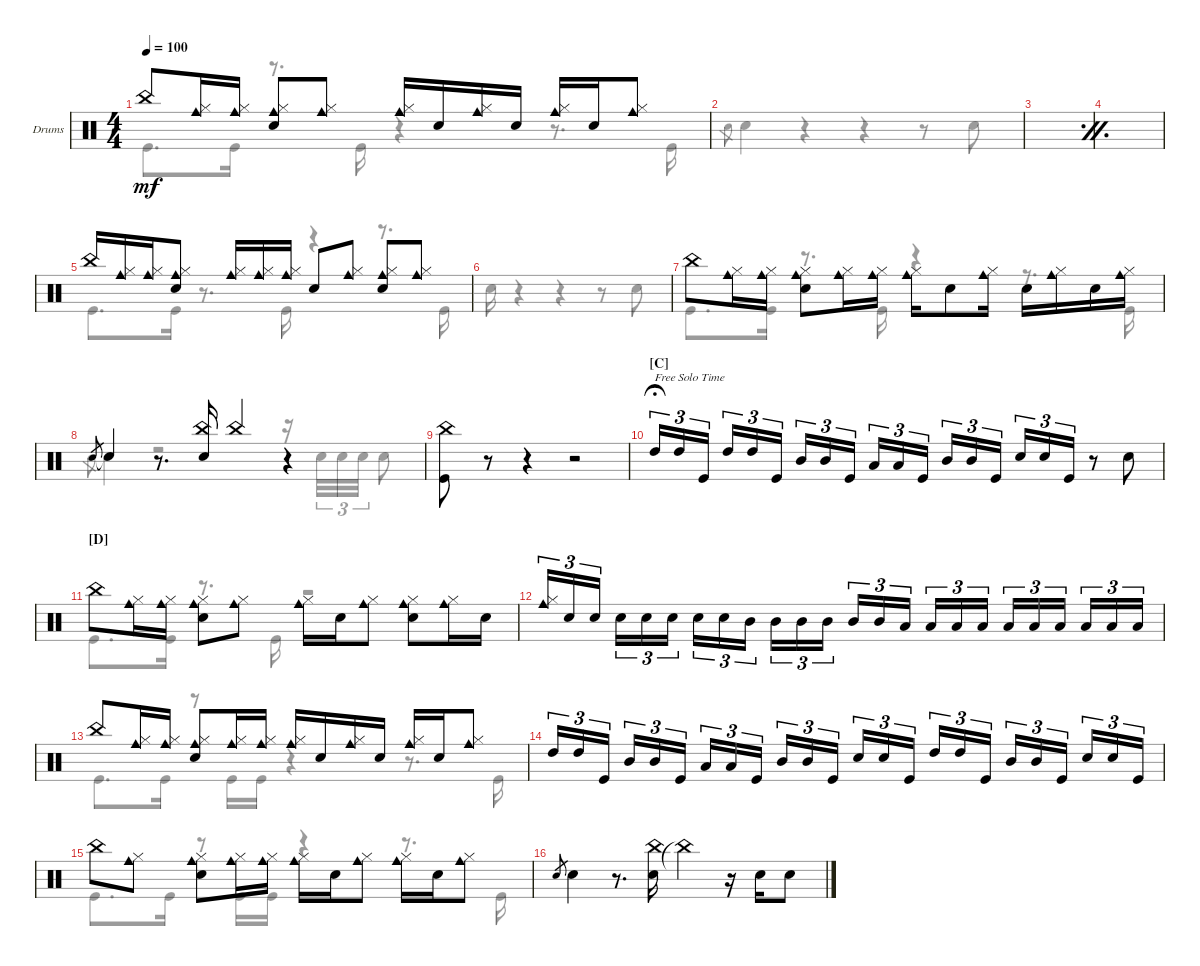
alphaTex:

\defaultSystemsLayout 4
\bracketExtendMode groupsimilarinstruments
\firstSystemTrackNameOrientation horizontal
\otherSystemsTrackNameOrientation horizontal
\track ("John Bonham" "Drums") {instrument percussion}
\staff {score}
\articulation defaults
\voice
\ts (4 4)
\tempo 100
\clef neutral
\ks c "China (hit)".8{dy mf}
("Hi-Hat (closed)" "Cowbell medium (hit)").16 ("Hi-Hat (closed)" "Cowbell medium (hit)").16 ("Hi-Hat (closed)" "Cowbell medium (hit)" "Snare (hit) 2").8 ("Hi-Hat (closed)" "Cowbell medium (hit)").8 ("Hi-Hat (closed)" "Cowbell medium (hit)").16 "Snare (hit) 2".16 ("Hi-Hat (closed)" "Cowbell medium (hit)").16 "Snare (hit) 2".16 ("Hi-Hat (closed)" "Cowbell medium (hit)").16 "Snare (hit) 2".16 ("Hi-Hat (closed)" "Cowbell medium (hit)").8 |
|
\simile firstofdouble
|
\simile secondofdouble
|
\simile none "China (hit)".16
("Hi-Hat (closed)" "Cowbell medium (hit)").16 ("Hi-Hat (closed)" "Cowbell medium (hit)").16 ("Hi-Hat (closed)" "Cowbell medium (hit)" "Snare (hit) 2").8 ("Hi-Hat (closed)" "Cowbell medium (hit)").16 ("Hi-Hat (closed)" "Cowbell medium (hit)").16 ("Hi-Hat (closed)" "Cowbell medium (hit)").16 "Snare (hit) 2".8 ("Hi-Hat (closed)" "Cowbell medium (hit)").8 ("Hi-Hat (closed)" "Cowbell medium (hit)" "Snare (hit) 2").8 ("Hi-Hat (closed)" "Cowbell medium (hit)").8 |
|
"China (hit)".8 ("Hi-Hat (closed)" "Cowbell medium (hit)").16{beam invert} ("Hi-Hat (closed)" "Cowbell medium (hit)").16{beam invert} ("Hi-Hat (closed)" "Cowbell medium (hit)" "Snare (hit) 2").8{beam invert} ("Hi-Hat (closed)" "Cowbell medium (hit)").16{beam invert} ("Hi-Hat (closed)" "Cowbell medium (hit)").16{beam invert} ("Hi-Hat (closed)" "Cowbell medium (hit)").16{beam invert} "Snare (hit) 2".8 ("Hi-Hat (closed)" "Cowbell medium (hit)").16{beam invert} "Snare (hit) 2".16 ("Hi-Hat (closed)" "Cowbell medium (hit)").16{beam invert} "Snare (hit) 2".16 ("Hi-Hat (closed)" "Cowbell medium (hit)").16{beam invert} |
"Snare (hit) 2".8{gr} "Snare (hit) 2"{t}.4 r.8{d} ("China (hit)" "Snare (hit) 2").16 "China (hit)".4 r.4 |
("Kick (hit)" "China (hit)").8 r.8 r.4 r.2 |
\section ("C" "")
"High Tom (hit)".16{tu (3 2) txt "Free Solo Time" fermata (medium 0.5)} "High Tom (hit)".16{tu (3 2)} "Kick (hit)".16{tu (3 2)} "High Tom (hit)".16{tu (3 2)} "High Tom (hit)".16{tu (3 2)} "Kick (hit)".16{tu (3 2)} "Mid Tom (hit)".16{tu (3 2)} "Mid Tom (hit)".16{tu (3 2)} "Kick (hit)".16{tu (3 2)} "Low Tom (hit)".16{tu (3 2)} "Low Tom (hit)".16{tu (3 2)} "Kick (hit)".16{tu (3 2)} "Mid Tom (hit)".16{tu (3 2)} "Mid Tom (hit)".16{tu (3 2)} "Kick (hit)".16{tu (3 2)} "Snare (hit) 2".16{tu (3 2)} "Snare (hit) 2".16{tu (3 2)} "Kick (hit)".16{tu (3 2)} r.8 "Snare (hit) 2".8 |
\section ("D" "")
"China (hit)".8{beam invert} ("Hi-Hat (closed)" "Cowbell medium (hit)").16 ("Hi-Hat (closed)" "Cowbell medium (hit)").16 ("Hi-Hat (closed)" "Cowbell medium (hit)" "Snare (hit) 2").8{beam invert} ("Hi-Hat (closed)" "Cowbell medium (hit)").8 ("Hi-Hat (closed)" "Cowbell medium (hit)").16{beam invert} "Snare (hit) 2".16 ("Hi-Hat (closed)" "Cowbell medium (hit)").8 ("Hi-Hat (closed)" "Cowbell medium (hit)" "Snare (hit) 2").8{beam invert} ("Hi-Hat (closed)" "Cowbell medium (hit)").16 "Snare (hit) 2".16 |
("Hi-Hat (closed)" "Cowbell medium (hit)").16{tu (3 2) beam invert} "Snare (hit) 2".16{tu (3 2)} "Snare (hit) 2".16{tu (3 2)} "Snare (hit) 2".16{tu (3 2)} "Snare (hit) 2".16{tu (3 2)} "Snare (hit) 2".16{tu (3 2)} "Snare (hit) 2".16{tu (3 2)} "Snare (hit) 2".16{tu (3 2)} "Mid Tom (hit)".16{tu (3 2)} "Mid Tom (hit)".16{tu (3 2)} "Mid Tom (hit)".16{tu (3 2)} "Mid Tom (hit)".16{tu (3 2)} "Mid Tom (hit)".16{tu (3 2)} "Mid Tom (hit)".16{tu (3 2)} "Low Tom (hit)".16{tu (3 2)} "Low Tom (hit)".16{tu (3 2)} "Low Tom (hit)".16{tu (3 2)} "Low Tom (hit)".16{tu (3 2)} "Low Tom (hit)".16{tu (3 2)} "Low Tom (hit)".16{tu (3 2)} "Low Tom (hit)".16{tu (3 2)} "Low Tom (hit)".16{tu (3 2)} "Low Tom (hit)".16{tu (3 2)} "Low Tom (hit)".16{tu (3 2)} |
"China (hit)".8 ("Hi-Hat (closed)" "Cowbell medium (hit)").16 ("Hi-Hat (closed)" "Cowbell medium (hit)").16 ("Hi-Hat (closed)" "Cowbell medium (hit)" "Snare (hit) 2").8 ("Hi-Hat (closed)" "Cowbell medium (hit)").16 ("Hi-Hat (closed)" "Cowbell medium (hit)").16 ("Hi-Hat (closed)" "Cowbell medium (hit)").16 "Snare (hit) 2".16 ("Hi-Hat (closed)" "Cowbell medium (hit)").16 "Snare (hit) 2".16 ("Hi-Hat (closed)" "Cowbell medium (hit)").16 "Snare (hit) 2".16 ("Hi-Hat (closed)" "Cowbell medium (hit)").8 |
"High Tom (hit)".16{tu (3 2)} "High Tom (hit)".16{tu (3 2)} "Kick (hit)".16{tu (3 2)} "Mid Tom (hit)".16{tu (3 2)} "Mid Tom (hit)".16{tu (3 2)} "Kick (hit)".16{tu (3 2)} "Low Tom (hit)".16{tu (3 2)} "Low Tom (hit)".16{tu (3 2)} "Kick (hit)".16{tu (3 2)} "Mid Tom (hit)".16{tu (3 2)} "Mid Tom (hit)".16{tu (3 2)} "Kick (hit)".16{tu (3 2)} "Snare (hit) 2".16{tu (3 2)} "Snare (hit) 2".16{tu (3 2)} "Kick (hit)".16{tu (3 2)} "High Tom (hit)".16{tu (3 2)} "High Tom (hit)".16{tu (3 2)} "Kick (hit)".16{tu (3 2)} "Mid Tom (hit)".16{tu (3 2)} "Mid Tom (hit)".16{tu (3 2)} "Kick (hit)".16{tu (3 2)} "Snare (hit) 2".16{tu (3 2)} "Snare (hit) 2".16{tu (3 2)} "Kick (hit)".16{tu (3 2)} |
"China (hit)".8{beam invert} ("Hi-Hat (closed)" "Cowbell medium (hit)").8 ("Hi-Hat (closed)" "Cowbell medium (hit)" "Snare (hit) 2").8{beam invert} ("Hi-Hat (closed)" "Cowbell medium (hit)").16 ("Hi-Hat (closed)" "Cowbell medium (hit)").16 ("Hi-Hat (closed)" "Cowbell medium (hit)").16{beam invert} "Snare (hit) 2".16 ("Hi-Hat (closed)" "Cowbell medium (hit)").8 ("Hi-Hat (closed)" "Cowbell medium (hit)").16{beam invert} "Snare (hit) 2".16 ("Hi-Hat (closed)" "Cowbell medium (hit)").8 |
"Snare (hit) 2".8{gr} "Snare (hit) 2".4 r.8{d} ("Snare (hit) 2" "China (hit)").16 "China (hit)"{t}.4 r.16 "Snare (hit) 2".16 "Snare (hit) 2".8
\voice
\clef neutral
\ottava regular
\simile none
\ks c "Kick (hit)".8{d dy mf} "Kick (hit)".16
r.8{d} "Kick (hit)".16 r.4 r.8{d} "Kick (hit)".16 |
"Snare (hit) 2".8{gr} "Snare (hit) 2".4 r.4 r.4 r.8 "Snare (hit) 2".8 |
\simile firstofdouble
|
\simile secondofdouble
|
\simile none "Kick (hit)".8{d} "Kick (hit)".16
r.8{d} "Kick (hit)".16 r.4 r.8{d} "Kick (hit)".16 |
"Snare (hit) 2".16 r.4 r.4 r.8 "Snare (hit) 2".8 |
"Kick (hit)".8{d} "Kick (hit)".16 r.8{d} "Kick (hit)".16 r.4 r.8{d} "Kick (hit)".16 |
"Snare (hit) 2".8{gr} "Snare (hit) 2"{t}.4 r.2 r.16 "Snare (hit) 2".32{tu (3 2)} "Snare (hit) 2".32{tu (3 2)} "Snare (hit) 2".32{tu (3 2)} "Snare (hit) 2".8 |
|
|
"Kick (hit)".8{d} "Kick (hit)".16 r.8{d} "Kick (hit)".16 r.2 |
|
"Kick (hit)".8{d} "Kick (hit)".16 r.8 "Kick (hit)".16 "Kick (hit)".16 r.4 r.8{d} "Kick (hit)".16 |
|
"Kick (hit)".8{d} "Kick (hit)".16 r.8 "Kick (hit)".16 "Kick (hit)".16 r.4 r.8{d} "Kick (hit)".16 |
